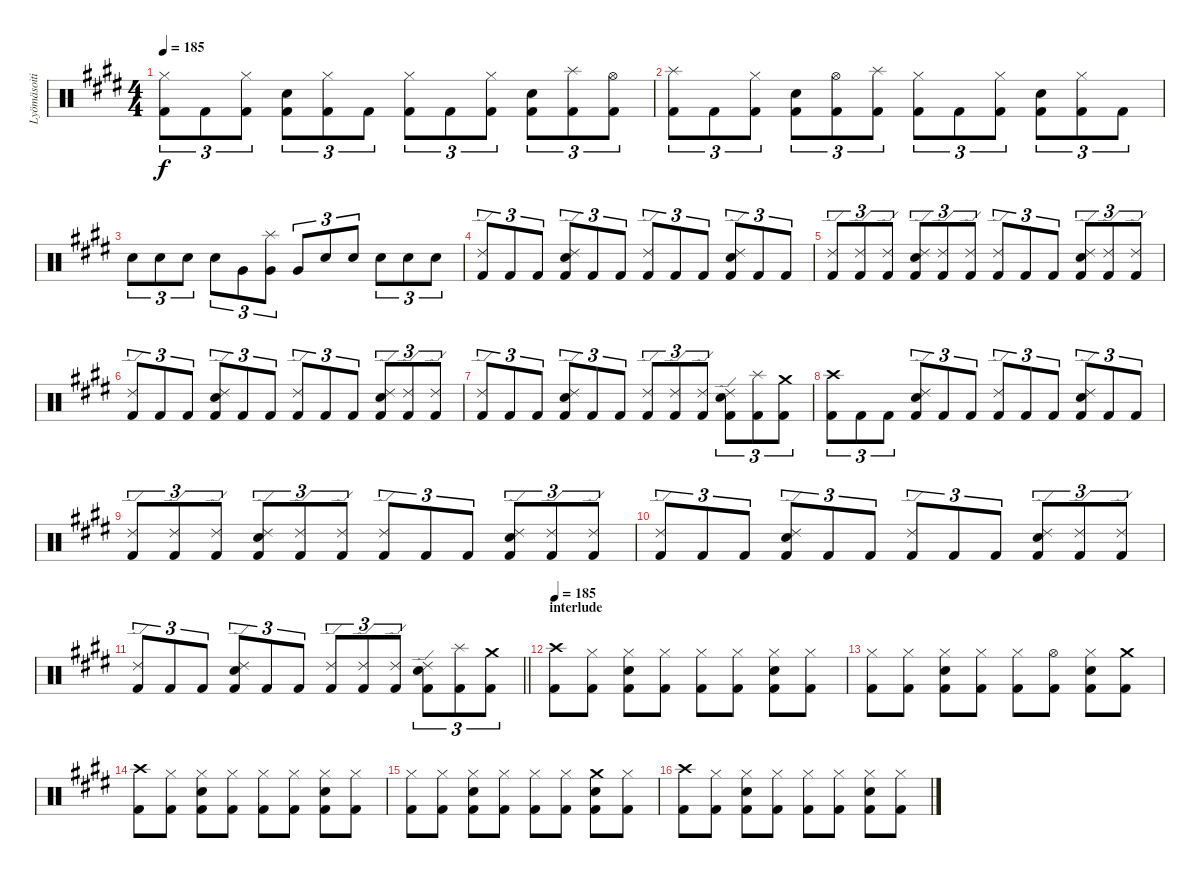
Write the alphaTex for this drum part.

\track ("Lyömäsoitin" "Lyömäsoiti") {instrument percussion}
\staff {score}
\articulation defaults
\ts (4 4)
\tempo 185
\clef neutral
\ks e
("Hi-Hat (closed)" "Kick (hit) 2").8{tu (3 2) dy f} "Kick (hit) 2".8{tu (3 2)} ("Hi-Hat (closed)" "Kick (hit) 2").8{tu (3 2)} ("Electric Snare (hit)" "Kick (hit) 2").8{tu (3 2)} ("Hi-Hat (closed)" "Kick (hit) 2").8{tu (3 2)} "Kick (hit) 2".8{tu (3 2)} ("Hi-Hat (closed)" "Kick (hit) 2").8{tu (3 2)} "Kick (hit) 2".8{tu (3 2)} ("Hi-Hat (closed)" "Kick (hit) 2").8{tu (3 2)} ("Electric Snare (hit)" "Kick (hit) 2").8{tu (3 2)} ("Splash (hit)" "Kick (hit) 2").8{tu (3 2)} ("Hi-Hat (open)" "Kick (hit) 2").8{tu (3 2)} |
("Splash (hit)" "Kick (hit) 2").8{tu (3 2)} "Kick (hit) 2".8{tu (3 2)} ("Hi-Hat (closed)" "Kick (hit) 2").8{tu (3 2)} ("Electric Snare (hit)" "Kick (hit) 2").8{tu (3 2)} ("Hi-Hat (open)" "Kick (hit) 2").8{tu (3 2)} ("Splash (hit)" "Kick (hit) 2").8{tu (3 2)} ("Hi-Hat (closed)" "Kick (hit) 2").8{tu (3 2)} "Kick (hit) 2".8{tu (3 2)} ("Hi-Hat (closed)" "Kick (hit) 2").8{tu (3 2)} ("Electric Snare (hit)" "Kick (hit) 2").8{tu (3 2)} ("Hi-Hat (closed)" "Kick (hit) 2").8{tu (3 2)} "Kick (hit) 2".8{tu (3 2)} |
"Electric Snare (hit)".8{tu (3 2)} "Electric Snare (hit)".8{tu (3 2)} "Electric Snare (hit)".8{tu (3 2)} "Electric Snare (hit)".8{tu (3 2)} "Very Low Tom (hit)".8{tu (3 2)} ("Splash (hit)" "Very Low Tom (hit)").8{tu (3 2)} "Very Low Tom (hit)".8{tu (3 2)} "Electric Snare (hit)".8{tu (3 2)} "Electric Snare (hit)".8{tu (3 2)} "Electric Snare (hit)".8{tu (3 2)} "Electric Snare (hit)".8{tu (3 2)} "Electric Snare (hit)".8{tu (3 2)} |
("Ride (edge) 2" "Kick (hit) 2").8{tu (3 2)} "Kick (hit) 2".8{tu (3 2)} "Kick (hit) 2".8{tu (3 2)} ("Ride (edge) 2" "Electric Snare (hit)" "Kick (hit) 2").8{tu (3 2)} "Kick (hit) 2".8{tu (3 2)} "Kick (hit) 2".8{tu (3 2)} ("Ride (edge) 2" "Kick (hit) 2").8{tu (3 2)} "Kick (hit) 2".8{tu (3 2)} "Kick (hit) 2".8{tu (3 2)} ("Ride (edge) 2" "Electric Snare (hit)" "Kick (hit) 2").8{tu (3 2)} "Kick (hit) 2".8{tu (3 2)} "Kick (hit) 2".8{tu (3 2)} |
("Ride (edge) 2" "Kick (hit) 2").8{tu (3 2)} ("Ride (edge) 2" "Kick (hit) 2").8{tu (3 2)} ("Ride (edge) 2" "Kick (hit) 2").8{tu (3 2)} ("Ride (edge) 2" "Electric Snare (hit)" "Kick (hit) 2").8{tu (3 2)} ("Ride (edge) 2" "Kick (hit) 2").8{tu (3 2)} ("Ride (edge) 2" "Kick (hit) 2").8{tu (3 2)} ("Ride (edge) 2" "Kick (hit) 2").8{tu (3 2)} "Kick (hit) 2".8{tu (3 2)} "Kick (hit) 2".8{tu (3 2)} ("Ride (edge) 2" "Electric Snare (hit)" "Kick (hit) 2").8{tu (3 2)} ("Ride (edge) 2" "Kick (hit) 2").8{tu (3 2)} ("Ride (edge) 2" "Kick (hit) 2").8{tu (3 2)} |
("Ride (edge) 2" "Kick (hit) 2").8{tu (3 2)} "Kick (hit) 2".8{tu (3 2)} "Kick (hit) 2".8{tu (3 2)} ("Ride (edge) 2" "Electric Snare (hit)" "Kick (hit) 2").8{tu (3 2)} "Kick (hit) 2".8{tu (3 2)} "Kick (hit) 2".8{tu (3 2)} ("Ride (edge) 2" "Kick (hit) 2").8{tu (3 2)} "Kick (hit) 2".8{tu (3 2)} "Kick (hit) 2".8{tu (3 2)} ("Ride (edge) 2" "Electric Snare (hit)" "Kick (hit) 2").8{tu (3 2)} ("Ride (edge) 2" "Kick (hit) 2").8{tu (3 2)} ("Ride (edge) 2" "Kick (hit) 2").8{tu (3 2)} |
("Ride (edge) 2" "Kick (hit) 2").8{tu (3 2)} "Kick (hit) 2".8{tu (3 2)} "Kick (hit) 2".8{tu (3 2)} ("Ride (edge) 2" "Electric Snare (hit)" "Kick (hit) 2").8{tu (3 2)} "Kick (hit) 2".8{tu (3 2)} "Kick (hit) 2".8{tu (3 2)} ("Ride (edge) 2" "Kick (hit) 2").8{tu (3 2)} ("Ride (edge) 2" "Kick (hit) 2").8{tu (3 2)} ("Ride (edge) 2" "Kick (hit) 2").8{tu (3 2)} ("Ride (edge) 2" "Electric Snare (hit)" "Kick (hit) 2").8{tu (3 2)} ("Splash (hit)" "Kick (hit) 2").8{tu (3 2)} ("Crash medium (hit)" "Kick (hit) 2").8{tu (3 2)} |
("Crash high (hit)" "Kick (hit) 2").8{tu (3 2)} "Kick (hit) 2".8{tu (3 2)} "Kick (hit) 2".8{tu (3 2)} ("Ride (edge) 2" "Electric Snare (hit)" "Kick (hit) 2").8{tu (3 2)} "Kick (hit) 2".8{tu (3 2)} "Kick (hit) 2".8{tu (3 2)} ("Ride (edge) 2" "Kick (hit) 2").8{tu (3 2)} "Kick (hit) 2".8{tu (3 2)} "Kick (hit) 2".8{tu (3 2)} ("Ride (edge) 2" "Electric Snare (hit)" "Kick (hit) 2").8{tu (3 2)} "Kick (hit) 2".8{tu (3 2)} "Kick (hit) 2".8{tu (3 2)} |
("Ride (edge) 2" "Kick (hit) 2").8{tu (3 2)} ("Ride (edge) 2" "Kick (hit) 2").8{tu (3 2)} ("Ride (edge) 2" "Kick (hit) 2").8{tu (3 2)} ("Ride (edge) 2" "Electric Snare (hit)" "Kick (hit) 2").8{tu (3 2)} ("Ride (edge) 2" "Kick (hit) 2").8{tu (3 2)} ("Ride (edge) 2" "Kick (hit) 2").8{tu (3 2)} ("Ride (edge) 2" "Kick (hit) 2").8{tu (3 2)} "Kick (hit) 2".8{tu (3 2)} "Kick (hit) 2".8{tu (3 2)} ("Ride (edge) 2" "Electric Snare (hit)" "Kick (hit) 2").8{tu (3 2)} ("Ride (edge) 2" "Kick (hit) 2").8{tu (3 2)} ("Ride (edge) 2" "Kick (hit) 2").8{tu (3 2)} |
("Ride (edge) 2" "Kick (hit) 2").8{tu (3 2)} "Kick (hit) 2".8{tu (3 2)} "Kick (hit) 2".8{tu (3 2)} ("Ride (edge) 2" "Electric Snare (hit)" "Kick (hit) 2").8{tu (3 2)} "Kick (hit) 2".8{tu (3 2)} "Kick (hit) 2".8{tu (3 2)} ("Ride (edge) 2" "Kick (hit) 2").8{tu (3 2)} "Kick (hit) 2".8{tu (3 2)} "Kick (hit) 2".8{tu (3 2)} ("Ride (edge) 2" "Electric Snare (hit)" "Kick (hit) 2").8{tu (3 2)} ("Ride (edge) 2" "Kick (hit) 2").8{tu (3 2)} ("Ride (edge) 2" "Kick (hit) 2").8{tu (3 2)} |
\barLineRight lightlight
("Ride (edge) 2" "Kick (hit) 2").8{tu (3 2)} "Kick (hit) 2".8{tu (3 2)} "Kick (hit) 2".8{tu (3 2)} ("Ride (edge) 2" "Electric Snare (hit)" "Kick (hit) 2").8{tu (3 2)} "Kick (hit) 2".8{tu (3 2)} "Kick (hit) 2".8{tu (3 2)} ("Ride (edge) 2" "Kick (hit) 2").8{tu (3 2)} ("Ride (edge) 2" "Kick (hit) 2").8{tu (3 2)} ("Ride (edge) 2" "Kick (hit) 2").8{tu (3 2)} ("Ride (edge) 2" "Electric Snare (hit)" "Kick (hit) 2").8{tu (3 2)} ("Splash (hit)" "Kick (hit) 2").8{tu (3 2)} ("Crash medium (hit)" "Kick (hit) 2").8{tu (3 2)} |
\section ("" "interlude")
\tempo 185
("Crash high (hit)" "Kick (hit) 2").8 ("Hi-Hat (closed)" "Kick (hit) 2").8 ("Hi-Hat (closed)" "Electric Snare (hit)" "Kick (hit) 2").8 ("Hi-Hat (closed)" "Kick (hit) 2").8 ("Hi-Hat (closed)" "Kick (hit) 2").8 ("Hi-Hat (closed)" "Kick (hit) 2").8 ("Hi-Hat (closed)" "Electric Snare (hit)" "Kick (hit) 2").8 ("Hi-Hat (closed)" "Kick (hit) 2").8 |
("Hi-Hat (closed)" "Kick (hit) 2").8 ("Hi-Hat (closed)" "Kick (hit) 2").8 ("Hi-Hat (closed)" "Electric Snare (hit)" "Kick (hit) 2").8 ("Hi-Hat (closed)" "Kick (hit) 2").8 ("Hi-Hat (closed)" "Kick (hit) 2").8 ("Hi-Hat (open)" "Kick (hit) 2").8 ("Hi-Hat (closed)" "Electric Snare (hit)" "Kick (hit) 2").8 ("Crash medium (hit)" "Kick (hit) 2").8 |
("Crash high (hit)" "Kick (hit) 2").8 ("Hi-Hat (closed)" "Kick (hit) 2").8 ("Hi-Hat (closed)" "Electric Snare (hit)" "Kick (hit) 2").8 ("Hi-Hat (closed)" "Kick (hit) 2").8 ("Hi-Hat (closed)" "Kick (hit) 2").8 ("Hi-Hat (closed)" "Kick (hit) 2").8 ("Hi-Hat (closed)" "Electric Snare (hit)" "Kick (hit) 2").8 ("Hi-Hat (closed)" "Kick (hit) 2").8 |
("Hi-Hat (closed)" "Kick (hit) 2").8 ("Hi-Hat (closed)" "Kick (hit) 2").8 ("Hi-Hat (closed)" "Electric Snare (hit)" "Kick (hit) 2").8 ("Hi-Hat (closed)" "Kick (hit) 2").8 ("Hi-Hat (closed)" "Kick (hit) 2").8 ("Hi-Hat (closed)" "Kick (hit) 2").8 ("Crash medium (hit)" "Electric Snare (hit)" "Kick (hit) 2").8 ("Hi-Hat (closed)" "Kick (hit) 2").8 |
("Crash high (hit)" "Kick (hit) 2").8 ("Hi-Hat (closed)" "Kick (hit) 2").8 ("Hi-Hat (closed)" "Electric Snare (hit)" "Kick (hit) 2").8 ("Hi-Hat (closed)" "Kick (hit) 2").8 ("Hi-Hat (closed)" "Kick (hit) 2").8 ("Hi-Hat (closed)" "Kick (hit) 2").8 ("Hi-Hat (closed)" "Electric Snare (hit)" "Kick (hit) 2").8 ("Hi-Hat (closed)" "Kick (hit) 2").8
